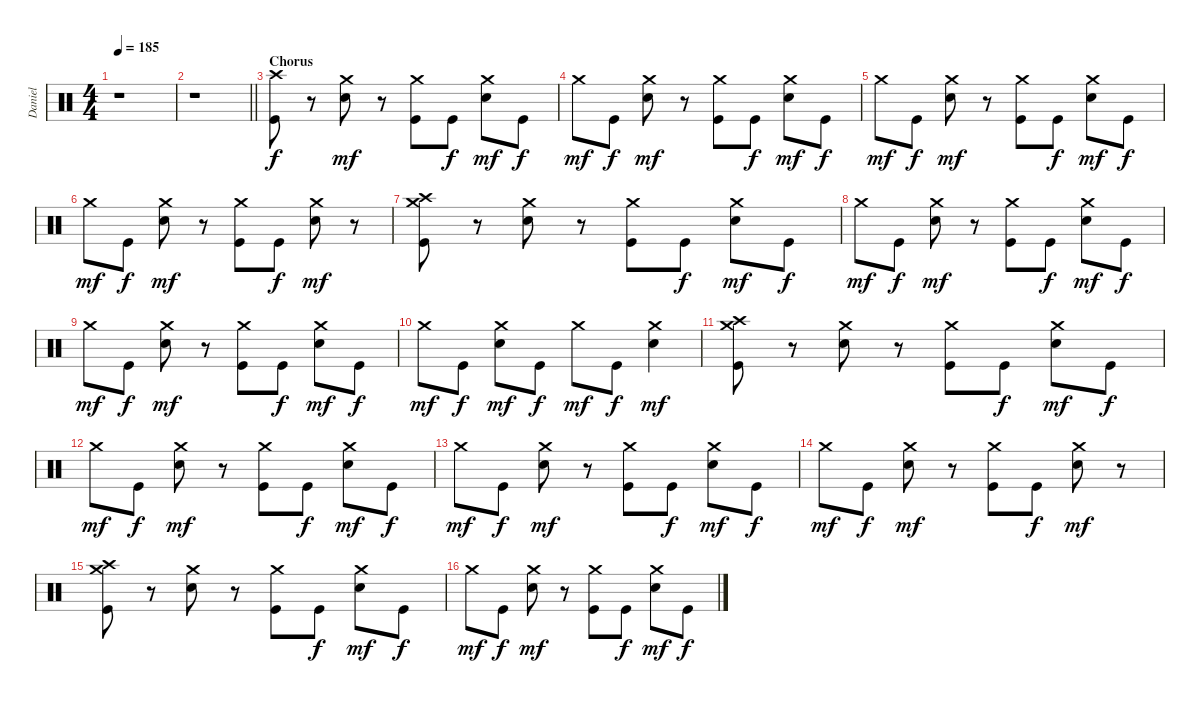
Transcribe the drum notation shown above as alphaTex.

\track ("Daniel" "Daniel") {instrument percussion}
\staff {score}
\articulation defaults
\ts (4 4)
\tempo 185
\clef neutral
\ks c
r.1{dy mf} |
\barLineRight lightlight
r.1 |
\section ("" "Chorus")
("Kick (hit)" "Crash high (hit)").8{dy f} r.8 ("Electric Snare (hit)" "Crash medium (hit)").8{dy mf} r.8 ("Kick (hit)" "Crash medium (hit)").8 "Kick (hit)".8{dy f} ("Electric Snare (hit)" "Crash medium (hit)").8{dy mf} "Kick (hit)".8{dy f} |
"Crash medium (hit)".8{dy mf} "Kick (hit)".8{dy f} ("Electric Snare (hit)" "Crash medium (hit)").8{dy mf} r.8 ("Kick (hit)" "Crash medium (hit)").8 "Kick (hit)".8{dy f} ("Electric Snare (hit)" "Crash medium (hit)").8{dy mf} "Kick (hit)".8{dy f} |
"Crash medium (hit)".8{dy mf} "Kick (hit)".8{dy f} ("Electric Snare (hit)" "Crash medium (hit)").8{dy mf} r.8 ("Kick (hit)" "Crash medium (hit)").8 "Kick (hit)".8{dy f} ("Electric Snare (hit)" "Crash medium (hit)").8{dy mf} "Kick (hit)".8{dy f} |
"Crash medium (hit)".8{dy mf} "Kick (hit)".8{dy f} ("Electric Snare (hit)" "Crash medium (hit)").8{dy mf} r.8 ("Kick (hit)" "Crash medium (hit)").8 "Kick (hit)".8{dy f} ("Electric Snare (hit)" "Crash medium (hit)").8{dy mf} r.8 |
("Kick (hit)" "Crash medium (hit)" "Crash high (hit)").8 r.8 ("Electric Snare (hit)" "Crash medium (hit)").8 r.8 ("Kick (hit)" "Crash medium (hit)").8 "Kick (hit)".8{dy f} ("Electric Snare (hit)" "Crash medium (hit)").8{dy mf} "Kick (hit)".8{dy f} |
"Crash medium (hit)".8{dy mf} "Kick (hit)".8{dy f} ("Electric Snare (hit)" "Crash medium (hit)").8{dy mf} r.8 ("Kick (hit)" "Crash medium (hit)").8 "Kick (hit)".8{dy f} ("Electric Snare (hit)" "Crash medium (hit)").8{dy mf} "Kick (hit)".8{dy f} |
"Crash medium (hit)".8{dy mf} "Kick (hit)".8{dy f} ("Electric Snare (hit)" "Crash medium (hit)").8{dy mf} r.8 ("Kick (hit)" "Crash medium (hit)").8 "Kick (hit)".8{dy f} ("Electric Snare (hit)" "Crash medium (hit)").8{dy mf} "Kick (hit)".8{dy f} |
"Crash medium (hit)".8{dy mf} "Kick (hit)".8{dy f} ("Electric Snare (hit)" "Crash medium (hit)").8{dy mf} "Kick (hit)".8{dy f} "Crash medium (hit)".8{dy mf} "Kick (hit)".8{dy f} ("Electric Snare (hit)" "Crash medium (hit)").4{dy mf} |
("Kick (hit)" "Crash medium (hit)" "Crash high (hit)").8 r.8 ("Electric Snare (hit)" "Crash medium (hit)").8 r.8 ("Kick (hit)" "Crash medium (hit)").8 "Kick (hit)".8{dy f} ("Electric Snare (hit)" "Crash medium (hit)").8{dy mf} "Kick (hit)".8{dy f} |
"Crash medium (hit)".8{dy mf} "Kick (hit)".8{dy f} ("Electric Snare (hit)" "Crash medium (hit)").8{dy mf} r.8 ("Kick (hit)" "Crash medium (hit)").8 "Kick (hit)".8{dy f} ("Electric Snare (hit)" "Crash medium (hit)").8{dy mf} "Kick (hit)".8{dy f} |
"Crash medium (hit)".8{dy mf} "Kick (hit)".8{dy f} ("Electric Snare (hit)" "Crash medium (hit)").8{dy mf} r.8 ("Kick (hit)" "Crash medium (hit)").8 "Kick (hit)".8{dy f} ("Electric Snare (hit)" "Crash medium (hit)").8{dy mf} "Kick (hit)".8{dy f} |
"Crash medium (hit)".8{dy mf} "Kick (hit)".8{dy f} ("Electric Snare (hit)" "Crash medium (hit)").8{dy mf} r.8 ("Kick (hit)" "Crash medium (hit)").8 "Kick (hit)".8{dy f} ("Electric Snare (hit)" "Crash medium (hit)").8{dy mf} r.8 |
("Kick (hit)" "Crash medium (hit)" "Crash high (hit)").8 r.8 ("Electric Snare (hit)" "Crash medium (hit)").8 r.8 ("Kick (hit)" "Crash medium (hit)").8 "Kick (hit)".8{dy f} ("Electric Snare (hit)" "Crash medium (hit)").8{dy mf} "Kick (hit)".8{dy f} |
"Crash medium (hit)".8{dy mf} "Kick (hit)".8{dy f} ("Electric Snare (hit)" "Crash medium (hit)").8{dy mf} r.8 ("Kick (hit)" "Crash medium (hit)").8 "Kick (hit)".8{dy f} ("Electric Snare (hit)" "Crash medium (hit)").8{dy mf} "Kick (hit)".8{dy f}
